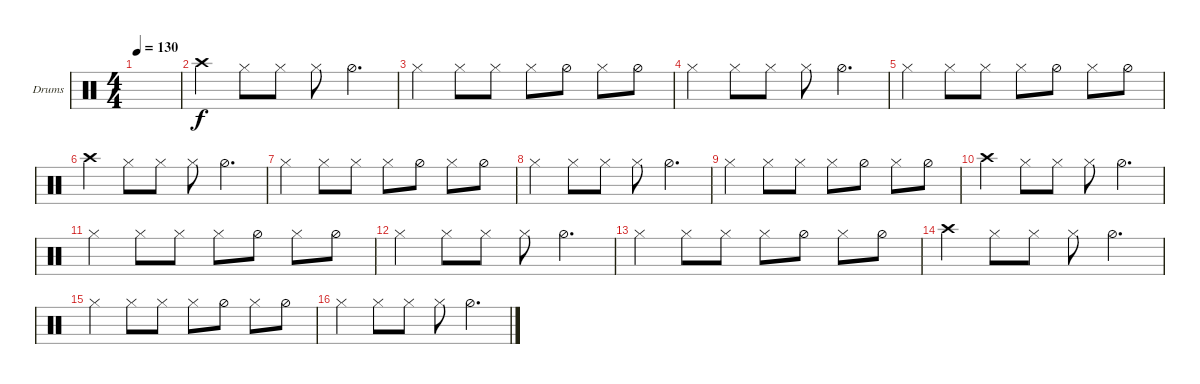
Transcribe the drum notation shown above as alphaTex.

\defaultSystemsLayout 4
\bracketExtendMode groupsimilarinstruments
\firstSystemTrackNameOrientation horizontal
\otherSystemsTrackNameOrientation horizontal
\track ("Helders" "Drums") {instrument percussion}
\staff {score}
\articulation defaults
\ts (4 4)
\tempo 130
\clef neutral
\ks c
|
"Crash high (hit)".4 "Hi-Hat (closed)".8 "Hi-Hat (closed)".8 "Hi-Hat (closed)".8 "Hi-Hat (half)".4{d} |
"Hi-Hat (closed)".4 "Hi-Hat (closed)".8 "Hi-Hat (closed)".8 "Hi-Hat (closed)".8 "Hi-Hat (half)".8 "Hi-Hat (closed)".8 "Hi-Hat (half)".8 |
"Hi-Hat (closed)".4 "Hi-Hat (closed)".8 "Hi-Hat (closed)".8 "Hi-Hat (closed)".8 "Hi-Hat (half)".4{d} |
"Hi-Hat (closed)".4 "Hi-Hat (closed)".8 "Hi-Hat (closed)".8 "Hi-Hat (closed)".8 "Hi-Hat (half)".8 "Hi-Hat (closed)".8 "Hi-Hat (half)".8 |
"Crash high (hit)".4 "Hi-Hat (closed)".8 "Hi-Hat (closed)".8 "Hi-Hat (closed)".8 "Hi-Hat (half)".4{d} |
"Hi-Hat (closed)".4 "Hi-Hat (closed)".8 "Hi-Hat (closed)".8 "Hi-Hat (closed)".8 "Hi-Hat (half)".8 "Hi-Hat (closed)".8 "Hi-Hat (half)".8 |
"Hi-Hat (closed)".4 "Hi-Hat (closed)".8 "Hi-Hat (closed)".8 "Hi-Hat (closed)".8 "Hi-Hat (half)".4{d} |
"Hi-Hat (closed)".4 "Hi-Hat (closed)".8 "Hi-Hat (closed)".8 "Hi-Hat (closed)".8 "Hi-Hat (half)".8 "Hi-Hat (closed)".8 "Hi-Hat (half)".8 |
"Crash high (hit)".4 "Hi-Hat (closed)".8 "Hi-Hat (closed)".8 "Hi-Hat (closed)".8 "Hi-Hat (half)".4{d} |
"Hi-Hat (closed)".4 "Hi-Hat (closed)".8 "Hi-Hat (closed)".8 "Hi-Hat (closed)".8 "Hi-Hat (half)".8 "Hi-Hat (closed)".8 "Hi-Hat (half)".8 |
"Hi-Hat (closed)".4 "Hi-Hat (closed)".8 "Hi-Hat (closed)".8 "Hi-Hat (closed)".8 "Hi-Hat (half)".4{d} |
"Hi-Hat (closed)".4 "Hi-Hat (closed)".8 "Hi-Hat (closed)".8 "Hi-Hat (closed)".8 "Hi-Hat (half)".8 "Hi-Hat (closed)".8 "Hi-Hat (half)".8 |
"Crash high (hit)".4 "Hi-Hat (closed)".8 "Hi-Hat (closed)".8 "Hi-Hat (closed)".8 "Hi-Hat (half)".4{d} |
"Hi-Hat (closed)".4 "Hi-Hat (closed)".8 "Hi-Hat (closed)".8 "Hi-Hat (closed)".8 "Hi-Hat (half)".8 "Hi-Hat (closed)".8 "Hi-Hat (half)".8 |
"Hi-Hat (closed)".4 "Hi-Hat (closed)".8 "Hi-Hat (closed)".8 "Hi-Hat (closed)".8 "Hi-Hat (half)".4{d}
